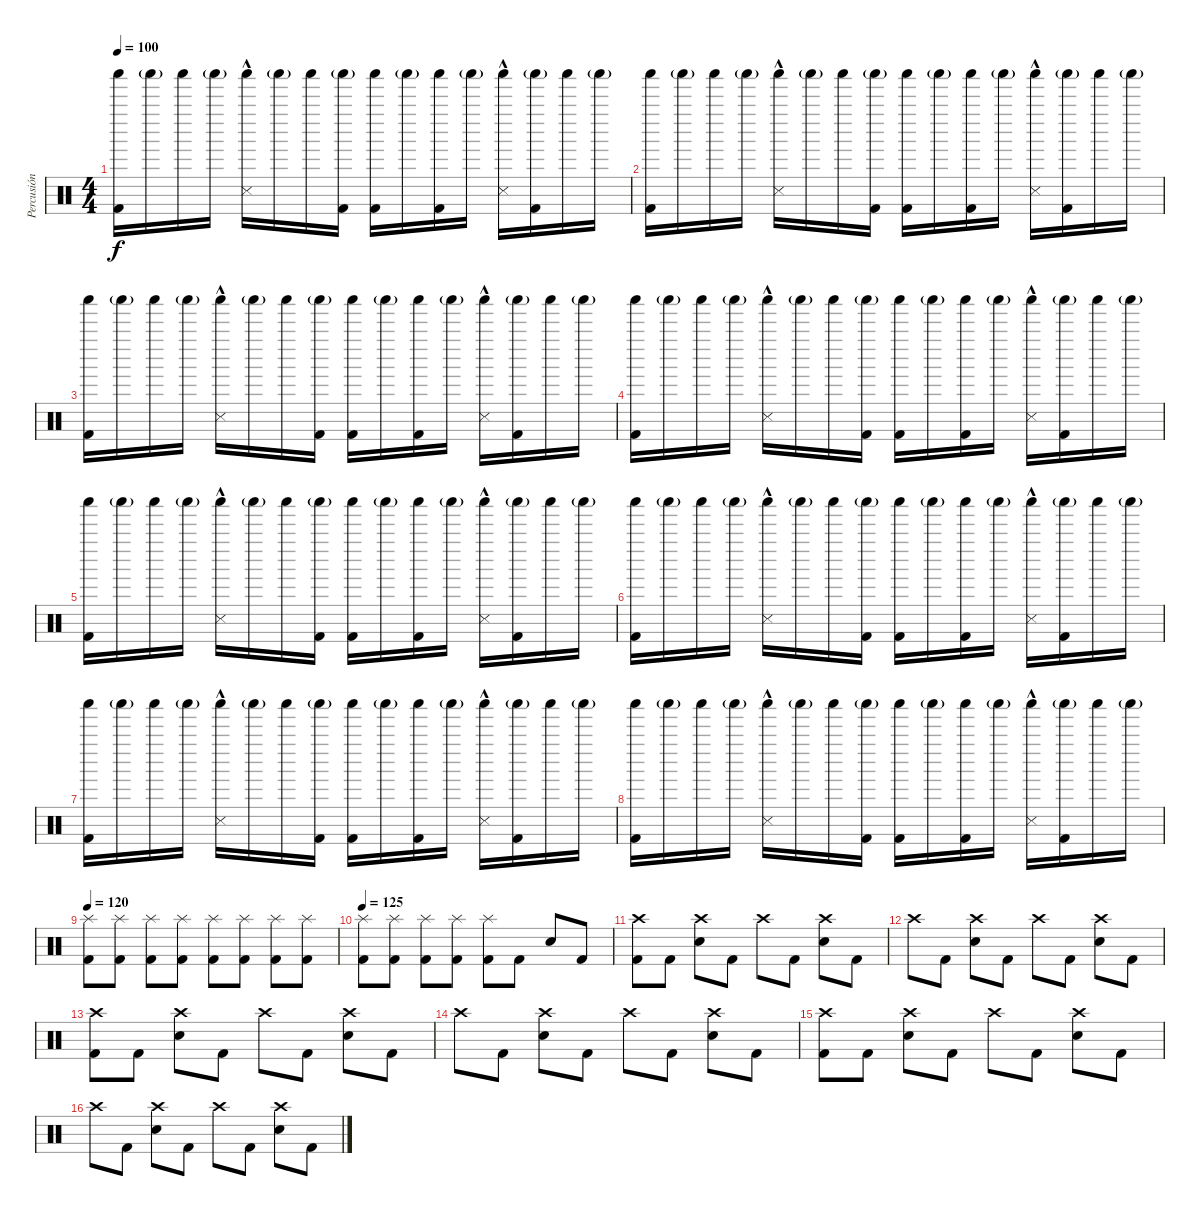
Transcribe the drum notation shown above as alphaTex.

\track ("Percusión" "Percusión") {instrument percussion}
\staff {score}
\articulation defaults
\ts (4 4)
\tempo 100
\clef neutral
\ks c
("Shaker (hit)" "Kick (hit) 2").16{dy f} "Shaker (hit)"{g}.16 "Shaker (hit)".16 "Shaker (hit)"{g}.16 ("Shaker (hit)" "Metronome (hit)"{hac}).16 "Shaker (hit)"{g}.16 "Shaker (hit)".16 ("Shaker (hit)"{g} "Kick (hit) 2").16 ("Shaker (hit)" "Kick (hit) 2").16 "Shaker (hit)"{g}.16 ("Shaker (hit)" "Kick (hit) 2").16 "Shaker (hit)"{g}.16 ("Shaker (hit)" "Metronome (hit)"{hac}).16 ("Shaker (hit)"{g} "Kick (hit) 2").16 "Shaker (hit)".16 "Shaker (hit)"{g}.16 |
("Shaker (hit)" "Kick (hit) 2").16 "Shaker (hit)"{g}.16 "Shaker (hit)".16 "Shaker (hit)"{g}.16 ("Shaker (hit)" "Metronome (hit)"{hac}).16 "Shaker (hit)"{g}.16 "Shaker (hit)".16 ("Shaker (hit)"{g} "Kick (hit) 2").16 ("Shaker (hit)" "Kick (hit) 2").16 "Shaker (hit)"{g}.16 ("Shaker (hit)" "Kick (hit) 2").16 "Shaker (hit)"{g}.16 ("Shaker (hit)" "Metronome (hit)"{hac}).16 ("Shaker (hit)"{g} "Kick (hit) 2").16 "Shaker (hit)".16 "Shaker (hit)"{g}.16 |
("Shaker (hit)" "Kick (hit) 2").16 "Shaker (hit)"{g}.16 "Shaker (hit)".16 "Shaker (hit)"{g}.16 ("Shaker (hit)" "Metronome (hit)"{hac}).16 "Shaker (hit)"{g}.16 "Shaker (hit)".16 ("Shaker (hit)"{g} "Kick (hit) 2").16 ("Shaker (hit)" "Kick (hit) 2").16 "Shaker (hit)"{g}.16 ("Shaker (hit)" "Kick (hit) 2").16 "Shaker (hit)"{g}.16 ("Shaker (hit)" "Metronome (hit)"{hac}).16 ("Shaker (hit)"{g} "Kick (hit) 2").16 "Shaker (hit)".16 "Shaker (hit)"{g}.16 |
("Shaker (hit)" "Kick (hit) 2").16 "Shaker (hit)"{g}.16 "Shaker (hit)".16 "Shaker (hit)"{g}.16 ("Shaker (hit)" "Metronome (hit)"{hac}).16 "Shaker (hit)"{g}.16 "Shaker (hit)".16 ("Shaker (hit)"{g} "Kick (hit) 2").16 ("Shaker (hit)" "Kick (hit) 2").16 "Shaker (hit)"{g}.16 ("Shaker (hit)" "Kick (hit) 2").16 "Shaker (hit)"{g}.16 ("Shaker (hit)" "Metronome (hit)"{hac}).16 ("Shaker (hit)"{g} "Kick (hit) 2").16 "Shaker (hit)".16 "Shaker (hit)"{g}.16 |
("Shaker (hit)" "Kick (hit) 2").16 "Shaker (hit)"{g}.16 "Shaker (hit)".16 "Shaker (hit)"{g}.16 ("Shaker (hit)" "Metronome (hit)"{hac}).16 "Shaker (hit)"{g}.16 "Shaker (hit)".16 ("Shaker (hit)"{g} "Kick (hit) 2").16 ("Shaker (hit)" "Kick (hit) 2").16 "Shaker (hit)"{g}.16 ("Shaker (hit)" "Kick (hit) 2").16 "Shaker (hit)"{g}.16 ("Shaker (hit)" "Metronome (hit)"{hac}).16 ("Shaker (hit)"{g} "Kick (hit) 2").16 "Shaker (hit)".16 "Shaker (hit)"{g}.16 |
("Shaker (hit)" "Kick (hit) 2").16 "Shaker (hit)"{g}.16 "Shaker (hit)".16 "Shaker (hit)"{g}.16 ("Shaker (hit)" "Metronome (hit)"{hac}).16 "Shaker (hit)"{g}.16 "Shaker (hit)".16 ("Shaker (hit)"{g} "Kick (hit) 2").16 ("Shaker (hit)" "Kick (hit) 2").16 "Shaker (hit)"{g}.16 ("Shaker (hit)" "Kick (hit) 2").16 "Shaker (hit)"{g}.16 ("Shaker (hit)" "Metronome (hit)"{hac}).16 ("Shaker (hit)"{g} "Kick (hit) 2").16 "Shaker (hit)".16 "Shaker (hit)"{g}.16 |
("Shaker (hit)" "Kick (hit) 2").16 "Shaker (hit)"{g}.16 "Shaker (hit)".16 "Shaker (hit)"{g}.16 ("Shaker (hit)" "Metronome (hit)"{hac}).16 "Shaker (hit)"{g}.16 "Shaker (hit)".16 ("Shaker (hit)"{g} "Kick (hit) 2").16 ("Shaker (hit)" "Kick (hit) 2").16 "Shaker (hit)"{g}.16 ("Shaker (hit)" "Kick (hit) 2").16 "Shaker (hit)"{g}.16 ("Shaker (hit)" "Metronome (hit)"{hac}).16 ("Shaker (hit)"{g} "Kick (hit) 2").16 "Shaker (hit)".16 "Shaker (hit)"{g}.16 |
("Shaker (hit)" "Kick (hit) 2").16 "Shaker (hit)"{g}.16 "Shaker (hit)".16 "Shaker (hit)"{g}.16 ("Shaker (hit)" "Metronome (hit)"{hac}).16 "Shaker (hit)"{g}.16 "Shaker (hit)".16 ("Shaker (hit)"{g} "Kick (hit) 2").16 ("Shaker (hit)" "Kick (hit) 2").16 "Shaker (hit)"{g}.16 ("Shaker (hit)" "Kick (hit) 2").16 "Shaker (hit)"{g}.16 ("Shaker (hit)" "Metronome (hit)"{hac}).16 ("Shaker (hit)"{g} "Kick (hit) 2").16 "Shaker (hit)".16 "Shaker (hit)"{g}.16 |
\tempo 120
("Splash (hit)" "Kick (hit) 2").8 ("Splash (hit)" "Kick (hit) 2").8 ("Splash (hit)" "Kick (hit) 2").8 ("Splash (hit)" "Kick (hit) 2").8 ("Splash (hit)" "Kick (hit) 2").8 ("Splash (hit)" "Kick (hit) 2").8 ("Splash (hit)" "Kick (hit) 2").8 ("Splash (hit)" "Kick (hit) 2").8 |
\tempo 125
("Splash (hit)" "Kick (hit) 2").8 ("Splash (hit)" "Kick (hit) 2").8 ("Splash (hit)" "Kick (hit) 2").8 ("Splash (hit)" "Kick (hit) 2").8 ("Splash (hit)" "Kick (hit) 2").8 "Kick (hit) 2".8 "Electric Snare (hit)".8 "Kick (hit) 2".8 |
("Crash high (hit)" "Kick (hit) 2").8 "Kick (hit) 2".8 ("Crash high (hit)" "Electric Snare (hit)").8 "Kick (hit) 2".8 "Crash high (hit)".8 "Kick (hit) 2".8 ("Crash high (hit)" "Electric Snare (hit)").8 "Kick (hit) 2".8 |
"Crash high (hit)".8 "Kick (hit) 2".8 ("Crash high (hit)" "Electric Snare (hit)").8 "Kick (hit) 2".8 "Crash high (hit)".8 "Kick (hit) 2".8 ("Crash high (hit)" "Electric Snare (hit)").8 "Kick (hit) 2".8 |
("Crash high (hit)" "Kick (hit) 2").8 "Kick (hit) 2".8 ("Crash high (hit)" "Electric Snare (hit)").8 "Kick (hit) 2".8 "Crash high (hit)".8 "Kick (hit) 2".8 ("Crash high (hit)" "Electric Snare (hit)").8 "Kick (hit) 2".8 |
"Crash high (hit)".8 "Kick (hit) 2".8 ("Crash high (hit)" "Electric Snare (hit)").8 "Kick (hit) 2".8 "Crash high (hit)".8 "Kick (hit) 2".8 ("Crash high (hit)" "Electric Snare (hit)").8 "Kick (hit) 2".8 |
("Crash high (hit)" "Kick (hit) 2").8 "Kick (hit) 2".8 ("Crash high (hit)" "Electric Snare (hit)").8 "Kick (hit) 2".8 "Crash high (hit)".8 "Kick (hit) 2".8 ("Crash high (hit)" "Electric Snare (hit)").8 "Kick (hit) 2".8 |
"Crash high (hit)".8 "Kick (hit) 2".8 ("Crash high (hit)" "Electric Snare (hit)").8 "Kick (hit) 2".8 "Crash high (hit)".8 "Kick (hit) 2".8 ("Crash high (hit)" "Electric Snare (hit)").8 "Kick (hit) 2".8
